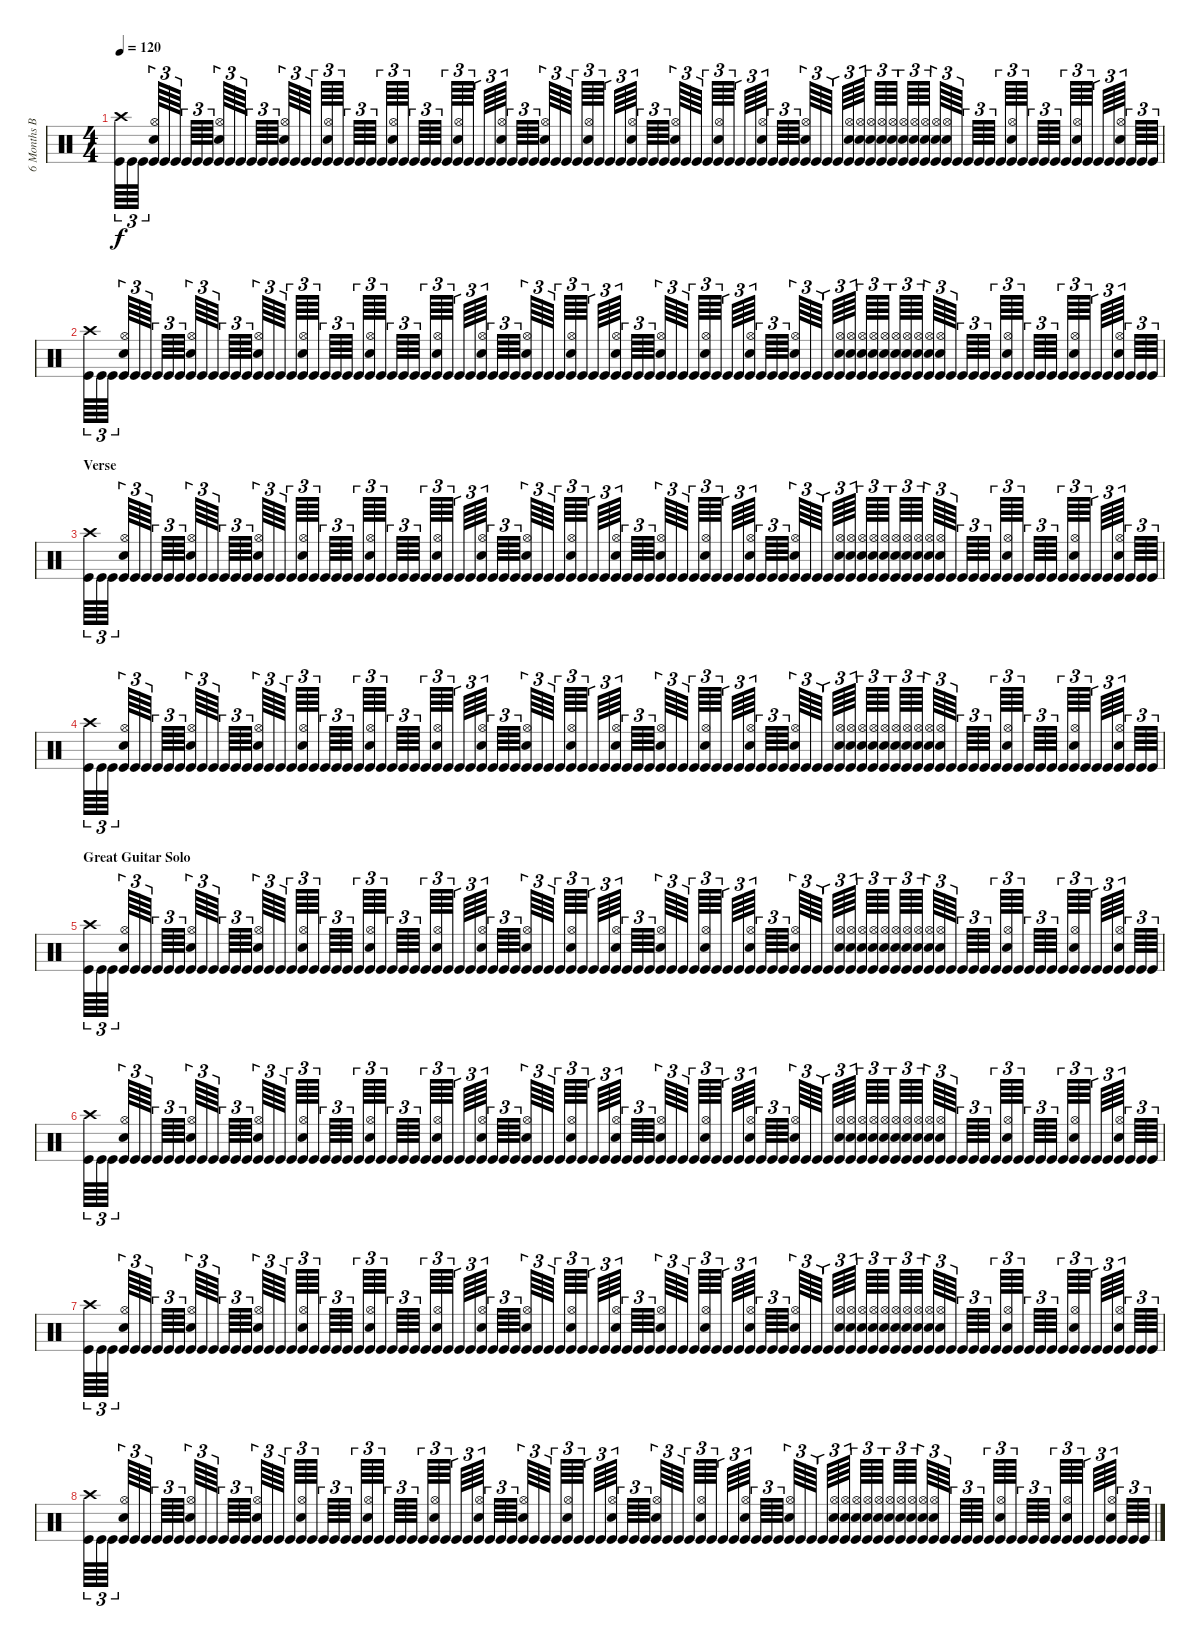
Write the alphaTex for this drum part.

\track ("6 Months Baby" "6 Months B") {instrument percussion}
\staff {score}
\articulation defaults
\ts (4 4)
\tempo 120
\clef neutral
\ks c
("Crash high (hit)" "Kick (hit)").64{tu (3 2) dy f} "Kick (hit)".64{tu (3 2)} "Kick (hit)".64{tu (3 2)} ("Hi-Hat (open)" "Snare (hit) 2" "Kick (hit)").64{tu (3 2)} "Kick (hit)".64{tu (3 2)} "Kick (hit)".64{tu (3 2)} "Kick (hit)".64{tu (3 2)} "Kick (hit)".64{tu (3 2)} "Kick (hit)".64{tu (3 2)} ("Hi-Hat (open)" "Snare (hit) 2" "Kick (hit)").64{tu (3 2)} "Kick (hit)".64{tu (3 2)} "Kick (hit)".64{tu (3 2)} "Kick (hit)".64{tu (3 2)} "Kick (hit)".64{tu (3 2)} "Kick (hit)".64{tu (3 2)} ("Hi-Hat (open)" "Snare (hit) 2" "Kick (hit)").64{tu (3 2)} "Kick (hit)".64{tu (3 2)} "Kick (hit)".64{tu (3 2)} "Kick (hit)".64{tu (3 2)} ("Hi-Hat (open)" "Snare (hit) 2" "Kick (hit)").64{tu (3 2)} "Kick (hit)".64{tu (3 2)} "Kick (hit)".64{tu (3 2)} "Kick (hit)".64{tu (3 2)} "Kick (hit)".64{tu (3 2)} "Kick (hit)".64{tu (3 2)} ("Hi-Hat (open)" "Snare (hit) 2" "Kick (hit)").64{tu (3 2)} "Kick (hit)".64{tu (3 2)} "Kick (hit)".64{tu (3 2)} "Kick (hit)".64{tu (3 2)} "Kick (hit)".64{tu (3 2)} "Kick (hit)".64{tu (3 2)} ("Hi-Hat (open)" "Snare (hit) 2" "Kick (hit)").64{tu (3 2)} "Kick (hit)".64{tu (3 2)} "Kick (hit)".64{tu (3 2)} "Kick (hit)".64{tu (3 2)} ("Hi-Hat (open)" "Snare (hit) 2" "Kick (hit)").64{tu (3 2)} "Kick (hit)".64{tu (3 2)} "Kick (hit)".64{tu (3 2)} "Kick (hit)".64{tu (3 2)} ("Hi-Hat (open)" "Snare (hit) 2" "Kick (hit)").64{tu (3 2)} "Kick (hit)".64{tu (3 2)} "Kick (hit)".64{tu (3 2)} "Kick (hit)".64{tu (3 2)} ("Hi-Hat (open)" "Snare (hit) 2" "Kick (hit)").64{tu (3 2)} "Kick (hit)".64{tu (3 2)} "Kick (hit)".64{tu (3 2)} "Kick (hit)".64{tu (3 2)} ("Hi-Hat (open)" "Snare (hit) 2" "Kick (hit)").64{tu (3 2)} "Kick (hit)".64{tu (3 2)} "Kick (hit)".64{tu (3 2)} "Kick (hit)".64{tu (3 2)} ("Hi-Hat (open)" "Snare (hit) 2" "Kick (hit)").64{tu (3 2)} "Kick (hit)".64{tu (3 2)} "Kick (hit)".64{tu (3 2)} "Kick (hit)".64{tu (3 2)} ("Hi-Hat (open)" "Snare (hit) 2" "Kick (hit)").64{tu (3 2)} "Kick (hit)".64{tu (3 2)} "Kick (hit)".64{tu (3 2)} "Kick (hit)".64{tu (3 2)} ("Hi-Hat (open)" "Snare (hit) 2" "Kick (hit)").64{tu (3 2)} "Kick (hit)".64{tu (3 2)} "Kick (hit)".64{tu (3 2)} "Kick (hit)".64{tu (3 2)} ("Hi-Hat (open)" "Snare (hit) 2" "Kick (hit)").64{tu (3 2)} "Kick (hit)".64{tu (3 2)} "Kick (hit)".64{tu (3 2)} "Kick (hit)".64{tu (3 2)} ("Hi-Hat (open)" "Snare (hit) 2" "Kick (hit)").64{tu (3 2)} ("Hi-Hat (open)" "Snare (hit) 2" "Kick (hit)").64{tu (3 2)} ("Hi-Hat (open)" "Snare (hit) 2" "Kick (hit)").64{tu (3 2)} ("Hi-Hat (open)" "Snare (hit) 2" "Kick (hit)").64{tu (3 2)} ("Hi-Hat (open)" "Snare (hit) 2" "Kick (hit)").64{tu (3 2)} ("Hi-Hat (open)" "Snare (hit) 2" "Kick (hit)").64{tu (3 2)} ("Hi-Hat (open)" "Snare (hit) 2" "Kick (hit)").64{tu (3 2)} ("Hi-Hat (open)" "Snare (hit) 2" "Kick (hit)").64{tu (3 2)} ("Hi-Hat (open)" "Snare (hit) 2" "Kick (hit)").64{tu (3 2)} ("Hi-Hat (open)" "Snare (hit) 2" "Kick (hit)").64{tu (3 2)} "Kick (hit)".64{tu (3 2)} "Kick (hit)".64{tu (3 2)} "Kick (hit)".64{tu (3 2)} "Kick (hit)".64{tu (3 2)} "Kick (hit)".64{tu (3 2)} ("Hi-Hat (open)" "Snare (hit) 2" "Kick (hit)").64{tu (3 2)} "Kick (hit)".64{tu (3 2)} "Kick (hit)".64{tu (3 2)} "Kick (hit)".64{tu (3 2)} "Kick (hit)".64{tu (3 2)} "Kick (hit)".64{tu (3 2)} ("Hi-Hat (open)" "Snare (hit) 2" "Kick (hit)").64{tu (3 2)} "Kick (hit)".64{tu (3 2)} "Kick (hit)".64{tu (3 2)} "Kick (hit)".64{tu (3 2)} ("Hi-Hat (open)" "Snare (hit) 2" "Kick (hit)").64{tu (3 2)} "Kick (hit)".64{tu (3 2)} "Kick (hit)".64{tu (3 2)} "Kick (hit)".64{tu (3 2)} |
("Crash high (hit)" "Kick (hit)").64{tu (3 2)} "Kick (hit)".64{tu (3 2)} "Kick (hit)".64{tu (3 2)} ("Hi-Hat (open)" "Snare (hit) 2" "Kick (hit)").64{tu (3 2)} "Kick (hit)".64{tu (3 2)} "Kick (hit)".64{tu (3 2)} "Kick (hit)".64{tu (3 2)} "Kick (hit)".64{tu (3 2)} "Kick (hit)".64{tu (3 2)} ("Hi-Hat (open)" "Snare (hit) 2" "Kick (hit)").64{tu (3 2)} "Kick (hit)".64{tu (3 2)} "Kick (hit)".64{tu (3 2)} "Kick (hit)".64{tu (3 2)} "Kick (hit)".64{tu (3 2)} "Kick (hit)".64{tu (3 2)} ("Hi-Hat (open)" "Snare (hit) 2" "Kick (hit)").64{tu (3 2)} "Kick (hit)".64{tu (3 2)} "Kick (hit)".64{tu (3 2)} "Kick (hit)".64{tu (3 2)} ("Hi-Hat (open)" "Snare (hit) 2" "Kick (hit)").64{tu (3 2)} "Kick (hit)".64{tu (3 2)} "Kick (hit)".64{tu (3 2)} "Kick (hit)".64{tu (3 2)} "Kick (hit)".64{tu (3 2)} "Kick (hit)".64{tu (3 2)} ("Hi-Hat (open)" "Snare (hit) 2" "Kick (hit)").64{tu (3 2)} "Kick (hit)".64{tu (3 2)} "Kick (hit)".64{tu (3 2)} "Kick (hit)".64{tu (3 2)} "Kick (hit)".64{tu (3 2)} "Kick (hit)".64{tu (3 2)} ("Hi-Hat (open)" "Snare (hit) 2" "Kick (hit)").64{tu (3 2)} "Kick (hit)".64{tu (3 2)} "Kick (hit)".64{tu (3 2)} "Kick (hit)".64{tu (3 2)} ("Hi-Hat (open)" "Snare (hit) 2" "Kick (hit)").64{tu (3 2)} "Kick (hit)".64{tu (3 2)} "Kick (hit)".64{tu (3 2)} "Kick (hit)".64{tu (3 2)} ("Hi-Hat (open)" "Snare (hit) 2" "Kick (hit)").64{tu (3 2)} "Kick (hit)".64{tu (3 2)} "Kick (hit)".64{tu (3 2)} "Kick (hit)".64{tu (3 2)} ("Hi-Hat (open)" "Snare (hit) 2" "Kick (hit)").64{tu (3 2)} "Kick (hit)".64{tu (3 2)} "Kick (hit)".64{tu (3 2)} "Kick (hit)".64{tu (3 2)} ("Hi-Hat (open)" "Snare (hit) 2" "Kick (hit)").64{tu (3 2)} "Kick (hit)".64{tu (3 2)} "Kick (hit)".64{tu (3 2)} "Kick (hit)".64{tu (3 2)} ("Hi-Hat (open)" "Snare (hit) 2" "Kick (hit)").64{tu (3 2)} "Kick (hit)".64{tu (3 2)} "Kick (hit)".64{tu (3 2)} "Kick (hit)".64{tu (3 2)} ("Hi-Hat (open)" "Snare (hit) 2" "Kick (hit)").64{tu (3 2)} "Kick (hit)".64{tu (3 2)} "Kick (hit)".64{tu (3 2)} "Kick (hit)".64{tu (3 2)} ("Hi-Hat (open)" "Snare (hit) 2" "Kick (hit)").64{tu (3 2)} "Kick (hit)".64{tu (3 2)} "Kick (hit)".64{tu (3 2)} "Kick (hit)".64{tu (3 2)} ("Hi-Hat (open)" "Snare (hit) 2" "Kick (hit)").64{tu (3 2)} "Kick (hit)".64{tu (3 2)} "Kick (hit)".64{tu (3 2)} "Kick (hit)".64{tu (3 2)} ("Hi-Hat (open)" "Snare (hit) 2" "Kick (hit)").64{tu (3 2)} ("Hi-Hat (open)" "Snare (hit) 2" "Kick (hit)").64{tu (3 2)} ("Hi-Hat (open)" "Snare (hit) 2" "Kick (hit)").64{tu (3 2)} ("Hi-Hat (open)" "Snare (hit) 2" "Kick (hit)").64{tu (3 2)} ("Hi-Hat (open)" "Snare (hit) 2" "Kick (hit)").64{tu (3 2)} ("Hi-Hat (open)" "Snare (hit) 2" "Kick (hit)").64{tu (3 2)} ("Hi-Hat (open)" "Snare (hit) 2" "Kick (hit)").64{tu (3 2)} ("Hi-Hat (open)" "Snare (hit) 2" "Kick (hit)").64{tu (3 2)} ("Hi-Hat (open)" "Snare (hit) 2" "Kick (hit)").64{tu (3 2)} ("Hi-Hat (open)" "Snare (hit) 2" "Kick (hit)").64{tu (3 2)} "Kick (hit)".64{tu (3 2)} "Kick (hit)".64{tu (3 2)} "Kick (hit)".64{tu (3 2)} "Kick (hit)".64{tu (3 2)} "Kick (hit)".64{tu (3 2)} ("Hi-Hat (open)" "Snare (hit) 2" "Kick (hit)").64{tu (3 2)} "Kick (hit)".64{tu (3 2)} "Kick (hit)".64{tu (3 2)} "Kick (hit)".64{tu (3 2)} "Kick (hit)".64{tu (3 2)} "Kick (hit)".64{tu (3 2)} ("Hi-Hat (open)" "Snare (hit) 2" "Kick (hit)").64{tu (3 2)} "Kick (hit)".64{tu (3 2)} "Kick (hit)".64{tu (3 2)} "Kick (hit)".64{tu (3 2)} ("Hi-Hat (open)" "Snare (hit) 2" "Kick (hit)").64{tu (3 2)} "Kick (hit)".64{tu (3 2)} "Kick (hit)".64{tu (3 2)} "Kick (hit)".64{tu (3 2)} |
\section ("" "Verse")
("Crash high (hit)" "Kick (hit)").64{tu (3 2)} "Kick (hit)".64{tu (3 2)} "Kick (hit)".64{tu (3 2)} ("Hi-Hat (open)" "Snare (hit) 2" "Kick (hit)").64{tu (3 2)} "Kick (hit)".64{tu (3 2)} "Kick (hit)".64{tu (3 2)} "Kick (hit)".64{tu (3 2)} "Kick (hit)".64{tu (3 2)} "Kick (hit)".64{tu (3 2)} ("Hi-Hat (open)" "Snare (hit) 2" "Kick (hit)").64{tu (3 2)} "Kick (hit)".64{tu (3 2)} "Kick (hit)".64{tu (3 2)} "Kick (hit)".64{tu (3 2)} "Kick (hit)".64{tu (3 2)} "Kick (hit)".64{tu (3 2)} ("Hi-Hat (open)" "Snare (hit) 2" "Kick (hit)").64{tu (3 2)} "Kick (hit)".64{tu (3 2)} "Kick (hit)".64{tu (3 2)} "Kick (hit)".64{tu (3 2)} ("Hi-Hat (open)" "Snare (hit) 2" "Kick (hit)").64{tu (3 2)} "Kick (hit)".64{tu (3 2)} "Kick (hit)".64{tu (3 2)} "Kick (hit)".64{tu (3 2)} "Kick (hit)".64{tu (3 2)} "Kick (hit)".64{tu (3 2)} ("Hi-Hat (open)" "Snare (hit) 2" "Kick (hit)").64{tu (3 2)} "Kick (hit)".64{tu (3 2)} "Kick (hit)".64{tu (3 2)} "Kick (hit)".64{tu (3 2)} "Kick (hit)".64{tu (3 2)} "Kick (hit)".64{tu (3 2)} ("Hi-Hat (open)" "Snare (hit) 2" "Kick (hit)").64{tu (3 2)} "Kick (hit)".64{tu (3 2)} "Kick (hit)".64{tu (3 2)} "Kick (hit)".64{tu (3 2)} ("Hi-Hat (open)" "Snare (hit) 2" "Kick (hit)").64{tu (3 2)} "Kick (hit)".64{tu (3 2)} "Kick (hit)".64{tu (3 2)} "Kick (hit)".64{tu (3 2)} ("Hi-Hat (open)" "Snare (hit) 2" "Kick (hit)").64{tu (3 2)} "Kick (hit)".64{tu (3 2)} "Kick (hit)".64{tu (3 2)} "Kick (hit)".64{tu (3 2)} ("Hi-Hat (open)" "Snare (hit) 2" "Kick (hit)").64{tu (3 2)} "Kick (hit)".64{tu (3 2)} "Kick (hit)".64{tu (3 2)} "Kick (hit)".64{tu (3 2)} ("Hi-Hat (open)" "Snare (hit) 2" "Kick (hit)").64{tu (3 2)} "Kick (hit)".64{tu (3 2)} "Kick (hit)".64{tu (3 2)} "Kick (hit)".64{tu (3 2)} ("Hi-Hat (open)" "Snare (hit) 2" "Kick (hit)").64{tu (3 2)} "Kick (hit)".64{tu (3 2)} "Kick (hit)".64{tu (3 2)} "Kick (hit)".64{tu (3 2)} ("Hi-Hat (open)" "Snare (hit) 2" "Kick (hit)").64{tu (3 2)} "Kick (hit)".64{tu (3 2)} "Kick (hit)".64{tu (3 2)} "Kick (hit)".64{tu (3 2)} ("Hi-Hat (open)" "Snare (hit) 2" "Kick (hit)").64{tu (3 2)} "Kick (hit)".64{tu (3 2)} "Kick (hit)".64{tu (3 2)} "Kick (hit)".64{tu (3 2)} ("Hi-Hat (open)" "Snare (hit) 2" "Kick (hit)").64{tu (3 2)} "Kick (hit)".64{tu (3 2)} "Kick (hit)".64{tu (3 2)} "Kick (hit)".64{tu (3 2)} ("Hi-Hat (open)" "Snare (hit) 2" "Kick (hit)").64{tu (3 2)} ("Hi-Hat (open)" "Snare (hit) 2" "Kick (hit)").64{tu (3 2)} ("Hi-Hat (open)" "Snare (hit) 2" "Kick (hit)").64{tu (3 2)} ("Hi-Hat (open)" "Snare (hit) 2" "Kick (hit)").64{tu (3 2)} ("Hi-Hat (open)" "Snare (hit) 2" "Kick (hit)").64{tu (3 2)} ("Hi-Hat (open)" "Snare (hit) 2" "Kick (hit)").64{tu (3 2)} ("Hi-Hat (open)" "Snare (hit) 2" "Kick (hit)").64{tu (3 2)} ("Hi-Hat (open)" "Snare (hit) 2" "Kick (hit)").64{tu (3 2)} ("Hi-Hat (open)" "Snare (hit) 2" "Kick (hit)").64{tu (3 2)} ("Hi-Hat (open)" "Snare (hit) 2" "Kick (hit)").64{tu (3 2)} "Kick (hit)".64{tu (3 2)} "Kick (hit)".64{tu (3 2)} "Kick (hit)".64{tu (3 2)} "Kick (hit)".64{tu (3 2)} "Kick (hit)".64{tu (3 2)} ("Hi-Hat (open)" "Snare (hit) 2" "Kick (hit)").64{tu (3 2)} "Kick (hit)".64{tu (3 2)} "Kick (hit)".64{tu (3 2)} "Kick (hit)".64{tu (3 2)} "Kick (hit)".64{tu (3 2)} "Kick (hit)".64{tu (3 2)} ("Hi-Hat (open)" "Snare (hit) 2" "Kick (hit)").64{tu (3 2)} "Kick (hit)".64{tu (3 2)} "Kick (hit)".64{tu (3 2)} "Kick (hit)".64{tu (3 2)} ("Hi-Hat (open)" "Snare (hit) 2" "Kick (hit)").64{tu (3 2)} "Kick (hit)".64{tu (3 2)} "Kick (hit)".64{tu (3 2)} "Kick (hit)".64{tu (3 2)} |
("Crash high (hit)" "Kick (hit)").64{tu (3 2)} "Kick (hit)".64{tu (3 2)} "Kick (hit)".64{tu (3 2)} ("Hi-Hat (open)" "Snare (hit) 2" "Kick (hit)").64{tu (3 2)} "Kick (hit)".64{tu (3 2)} "Kick (hit)".64{tu (3 2)} "Kick (hit)".64{tu (3 2)} "Kick (hit)".64{tu (3 2)} "Kick (hit)".64{tu (3 2)} ("Hi-Hat (open)" "Snare (hit) 2" "Kick (hit)").64{tu (3 2)} "Kick (hit)".64{tu (3 2)} "Kick (hit)".64{tu (3 2)} "Kick (hit)".64{tu (3 2)} "Kick (hit)".64{tu (3 2)} "Kick (hit)".64{tu (3 2)} ("Hi-Hat (open)" "Snare (hit) 2" "Kick (hit)").64{tu (3 2)} "Kick (hit)".64{tu (3 2)} "Kick (hit)".64{tu (3 2)} "Kick (hit)".64{tu (3 2)} ("Hi-Hat (open)" "Snare (hit) 2" "Kick (hit)").64{tu (3 2)} "Kick (hit)".64{tu (3 2)} "Kick (hit)".64{tu (3 2)} "Kick (hit)".64{tu (3 2)} "Kick (hit)".64{tu (3 2)} "Kick (hit)".64{tu (3 2)} ("Hi-Hat (open)" "Snare (hit) 2" "Kick (hit)").64{tu (3 2)} "Kick (hit)".64{tu (3 2)} "Kick (hit)".64{tu (3 2)} "Kick (hit)".64{tu (3 2)} "Kick (hit)".64{tu (3 2)} "Kick (hit)".64{tu (3 2)} ("Hi-Hat (open)" "Snare (hit) 2" "Kick (hit)").64{tu (3 2)} "Kick (hit)".64{tu (3 2)} "Kick (hit)".64{tu (3 2)} "Kick (hit)".64{tu (3 2)} ("Hi-Hat (open)" "Snare (hit) 2" "Kick (hit)").64{tu (3 2)} "Kick (hit)".64{tu (3 2)} "Kick (hit)".64{tu (3 2)} "Kick (hit)".64{tu (3 2)} ("Hi-Hat (open)" "Snare (hit) 2" "Kick (hit)").64{tu (3 2)} "Kick (hit)".64{tu (3 2)} "Kick (hit)".64{tu (3 2)} "Kick (hit)".64{tu (3 2)} ("Hi-Hat (open)" "Snare (hit) 2" "Kick (hit)").64{tu (3 2)} "Kick (hit)".64{tu (3 2)} "Kick (hit)".64{tu (3 2)} "Kick (hit)".64{tu (3 2)} ("Hi-Hat (open)" "Snare (hit) 2" "Kick (hit)").64{tu (3 2)} "Kick (hit)".64{tu (3 2)} "Kick (hit)".64{tu (3 2)} "Kick (hit)".64{tu (3 2)} ("Hi-Hat (open)" "Snare (hit) 2" "Kick (hit)").64{tu (3 2)} "Kick (hit)".64{tu (3 2)} "Kick (hit)".64{tu (3 2)} "Kick (hit)".64{tu (3 2)} ("Hi-Hat (open)" "Snare (hit) 2" "Kick (hit)").64{tu (3 2)} "Kick (hit)".64{tu (3 2)} "Kick (hit)".64{tu (3 2)} "Kick (hit)".64{tu (3 2)} ("Hi-Hat (open)" "Snare (hit) 2" "Kick (hit)").64{tu (3 2)} "Kick (hit)".64{tu (3 2)} "Kick (hit)".64{tu (3 2)} "Kick (hit)".64{tu (3 2)} ("Hi-Hat (open)" "Snare (hit) 2" "Kick (hit)").64{tu (3 2)} "Kick (hit)".64{tu (3 2)} "Kick (hit)".64{tu (3 2)} "Kick (hit)".64{tu (3 2)} ("Hi-Hat (open)" "Snare (hit) 2" "Kick (hit)").64{tu (3 2)} ("Hi-Hat (open)" "Snare (hit) 2" "Kick (hit)").64{tu (3 2)} ("Hi-Hat (open)" "Snare (hit) 2" "Kick (hit)").64{tu (3 2)} ("Hi-Hat (open)" "Snare (hit) 2" "Kick (hit)").64{tu (3 2)} ("Hi-Hat (open)" "Snare (hit) 2" "Kick (hit)").64{tu (3 2)} ("Hi-Hat (open)" "Snare (hit) 2" "Kick (hit)").64{tu (3 2)} ("Hi-Hat (open)" "Snare (hit) 2" "Kick (hit)").64{tu (3 2)} ("Hi-Hat (open)" "Snare (hit) 2" "Kick (hit)").64{tu (3 2)} ("Hi-Hat (open)" "Snare (hit) 2" "Kick (hit)").64{tu (3 2)} ("Hi-Hat (open)" "Snare (hit) 2" "Kick (hit)").64{tu (3 2)} "Kick (hit)".64{tu (3 2)} "Kick (hit)".64{tu (3 2)} "Kick (hit)".64{tu (3 2)} "Kick (hit)".64{tu (3 2)} "Kick (hit)".64{tu (3 2)} ("Hi-Hat (open)" "Snare (hit) 2" "Kick (hit)").64{tu (3 2)} "Kick (hit)".64{tu (3 2)} "Kick (hit)".64{tu (3 2)} "Kick (hit)".64{tu (3 2)} "Kick (hit)".64{tu (3 2)} "Kick (hit)".64{tu (3 2)} ("Hi-Hat (open)" "Snare (hit) 2" "Kick (hit)").64{tu (3 2)} "Kick (hit)".64{tu (3 2)} "Kick (hit)".64{tu (3 2)} "Kick (hit)".64{tu (3 2)} ("Hi-Hat (open)" "Snare (hit) 2" "Kick (hit)").64{tu (3 2)} "Kick (hit)".64{tu (3 2)} "Kick (hit)".64{tu (3 2)} "Kick (hit)".64{tu (3 2)} |
\section ("" "Great Guitar Solo")
("Crash high (hit)" "Kick (hit)").64{tu (3 2)} "Kick (hit)".64{tu (3 2)} "Kick (hit)".64{tu (3 2)} ("Hi-Hat (open)" "Snare (hit) 2" "Kick (hit)").64{tu (3 2)} "Kick (hit)".64{tu (3 2)} "Kick (hit)".64{tu (3 2)} "Kick (hit)".64{tu (3 2)} "Kick (hit)".64{tu (3 2)} "Kick (hit)".64{tu (3 2)} ("Hi-Hat (open)" "Snare (hit) 2" "Kick (hit)").64{tu (3 2)} "Kick (hit)".64{tu (3 2)} "Kick (hit)".64{tu (3 2)} "Kick (hit)".64{tu (3 2)} "Kick (hit)".64{tu (3 2)} "Kick (hit)".64{tu (3 2)} ("Hi-Hat (open)" "Snare (hit) 2" "Kick (hit)").64{tu (3 2)} "Kick (hit)".64{tu (3 2)} "Kick (hit)".64{tu (3 2)} "Kick (hit)".64{tu (3 2)} ("Hi-Hat (open)" "Snare (hit) 2" "Kick (hit)").64{tu (3 2)} "Kick (hit)".64{tu (3 2)} "Kick (hit)".64{tu (3 2)} "Kick (hit)".64{tu (3 2)} "Kick (hit)".64{tu (3 2)} "Kick (hit)".64{tu (3 2)} ("Hi-Hat (open)" "Snare (hit) 2" "Kick (hit)").64{tu (3 2)} "Kick (hit)".64{tu (3 2)} "Kick (hit)".64{tu (3 2)} "Kick (hit)".64{tu (3 2)} "Kick (hit)".64{tu (3 2)} "Kick (hit)".64{tu (3 2)} ("Hi-Hat (open)" "Snare (hit) 2" "Kick (hit)").64{tu (3 2)} "Kick (hit)".64{tu (3 2)} "Kick (hit)".64{tu (3 2)} "Kick (hit)".64{tu (3 2)} ("Hi-Hat (open)" "Snare (hit) 2" "Kick (hit)").64{tu (3 2)} "Kick (hit)".64{tu (3 2)} "Kick (hit)".64{tu (3 2)} "Kick (hit)".64{tu (3 2)} ("Hi-Hat (open)" "Snare (hit) 2" "Kick (hit)").64{tu (3 2)} "Kick (hit)".64{tu (3 2)} "Kick (hit)".64{tu (3 2)} "Kick (hit)".64{tu (3 2)} ("Hi-Hat (open)" "Snare (hit) 2" "Kick (hit)").64{tu (3 2)} "Kick (hit)".64{tu (3 2)} "Kick (hit)".64{tu (3 2)} "Kick (hit)".64{tu (3 2)} ("Hi-Hat (open)" "Snare (hit) 2" "Kick (hit)").64{tu (3 2)} "Kick (hit)".64{tu (3 2)} "Kick (hit)".64{tu (3 2)} "Kick (hit)".64{tu (3 2)} ("Hi-Hat (open)" "Snare (hit) 2" "Kick (hit)").64{tu (3 2)} "Kick (hit)".64{tu (3 2)} "Kick (hit)".64{tu (3 2)} "Kick (hit)".64{tu (3 2)} ("Hi-Hat (open)" "Snare (hit) 2" "Kick (hit)").64{tu (3 2)} "Kick (hit)".64{tu (3 2)} "Kick (hit)".64{tu (3 2)} "Kick (hit)".64{tu (3 2)} ("Hi-Hat (open)" "Snare (hit) 2" "Kick (hit)").64{tu (3 2)} "Kick (hit)".64{tu (3 2)} "Kick (hit)".64{tu (3 2)} "Kick (hit)".64{tu (3 2)} ("Hi-Hat (open)" "Snare (hit) 2" "Kick (hit)").64{tu (3 2)} "Kick (hit)".64{tu (3 2)} "Kick (hit)".64{tu (3 2)} "Kick (hit)".64{tu (3 2)} ("Hi-Hat (open)" "Snare (hit) 2" "Kick (hit)").64{tu (3 2)} ("Hi-Hat (open)" "Snare (hit) 2" "Kick (hit)").64{tu (3 2)} ("Hi-Hat (open)" "Snare (hit) 2" "Kick (hit)").64{tu (3 2)} ("Hi-Hat (open)" "Snare (hit) 2" "Kick (hit)").64{tu (3 2)} ("Hi-Hat (open)" "Snare (hit) 2" "Kick (hit)").64{tu (3 2)} ("Hi-Hat (open)" "Snare (hit) 2" "Kick (hit)").64{tu (3 2)} ("Hi-Hat (open)" "Snare (hit) 2" "Kick (hit)").64{tu (3 2)} ("Hi-Hat (open)" "Snare (hit) 2" "Kick (hit)").64{tu (3 2)} ("Hi-Hat (open)" "Snare (hit) 2" "Kick (hit)").64{tu (3 2)} ("Hi-Hat (open)" "Snare (hit) 2" "Kick (hit)").64{tu (3 2)} "Kick (hit)".64{tu (3 2)} "Kick (hit)".64{tu (3 2)} "Kick (hit)".64{tu (3 2)} "Kick (hit)".64{tu (3 2)} "Kick (hit)".64{tu (3 2)} ("Hi-Hat (open)" "Snare (hit) 2" "Kick (hit)").64{tu (3 2)} "Kick (hit)".64{tu (3 2)} "Kick (hit)".64{tu (3 2)} "Kick (hit)".64{tu (3 2)} "Kick (hit)".64{tu (3 2)} "Kick (hit)".64{tu (3 2)} ("Hi-Hat (open)" "Snare (hit) 2" "Kick (hit)").64{tu (3 2)} "Kick (hit)".64{tu (3 2)} "Kick (hit)".64{tu (3 2)} "Kick (hit)".64{tu (3 2)} ("Hi-Hat (open)" "Snare (hit) 2" "Kick (hit)").64{tu (3 2)} "Kick (hit)".64{tu (3 2)} "Kick (hit)".64{tu (3 2)} "Kick (hit)".64{tu (3 2)} |
("Crash high (hit)" "Kick (hit)").64{tu (3 2)} "Kick (hit)".64{tu (3 2)} "Kick (hit)".64{tu (3 2)} ("Hi-Hat (open)" "Snare (hit) 2" "Kick (hit)").64{tu (3 2)} "Kick (hit)".64{tu (3 2)} "Kick (hit)".64{tu (3 2)} "Kick (hit)".64{tu (3 2)} "Kick (hit)".64{tu (3 2)} "Kick (hit)".64{tu (3 2)} ("Hi-Hat (open)" "Snare (hit) 2" "Kick (hit)").64{tu (3 2)} "Kick (hit)".64{tu (3 2)} "Kick (hit)".64{tu (3 2)} "Kick (hit)".64{tu (3 2)} "Kick (hit)".64{tu (3 2)} "Kick (hit)".64{tu (3 2)} ("Hi-Hat (open)" "Snare (hit) 2" "Kick (hit)").64{tu (3 2)} "Kick (hit)".64{tu (3 2)} "Kick (hit)".64{tu (3 2)} "Kick (hit)".64{tu (3 2)} ("Hi-Hat (open)" "Snare (hit) 2" "Kick (hit)").64{tu (3 2)} "Kick (hit)".64{tu (3 2)} "Kick (hit)".64{tu (3 2)} "Kick (hit)".64{tu (3 2)} "Kick (hit)".64{tu (3 2)} "Kick (hit)".64{tu (3 2)} ("Hi-Hat (open)" "Snare (hit) 2" "Kick (hit)").64{tu (3 2)} "Kick (hit)".64{tu (3 2)} "Kick (hit)".64{tu (3 2)} "Kick (hit)".64{tu (3 2)} "Kick (hit)".64{tu (3 2)} "Kick (hit)".64{tu (3 2)} ("Hi-Hat (open)" "Snare (hit) 2" "Kick (hit)").64{tu (3 2)} "Kick (hit)".64{tu (3 2)} "Kick (hit)".64{tu (3 2)} "Kick (hit)".64{tu (3 2)} ("Hi-Hat (open)" "Snare (hit) 2" "Kick (hit)").64{tu (3 2)} "Kick (hit)".64{tu (3 2)} "Kick (hit)".64{tu (3 2)} "Kick (hit)".64{tu (3 2)} ("Hi-Hat (open)" "Snare (hit) 2" "Kick (hit)").64{tu (3 2)} "Kick (hit)".64{tu (3 2)} "Kick (hit)".64{tu (3 2)} "Kick (hit)".64{tu (3 2)} ("Hi-Hat (open)" "Snare (hit) 2" "Kick (hit)").64{tu (3 2)} "Kick (hit)".64{tu (3 2)} "Kick (hit)".64{tu (3 2)} "Kick (hit)".64{tu (3 2)} ("Hi-Hat (open)" "Snare (hit) 2" "Kick (hit)").64{tu (3 2)} "Kick (hit)".64{tu (3 2)} "Kick (hit)".64{tu (3 2)} "Kick (hit)".64{tu (3 2)} ("Hi-Hat (open)" "Snare (hit) 2" "Kick (hit)").64{tu (3 2)} "Kick (hit)".64{tu (3 2)} "Kick (hit)".64{tu (3 2)} "Kick (hit)".64{tu (3 2)} ("Hi-Hat (open)" "Snare (hit) 2" "Kick (hit)").64{tu (3 2)} "Kick (hit)".64{tu (3 2)} "Kick (hit)".64{tu (3 2)} "Kick (hit)".64{tu (3 2)} ("Hi-Hat (open)" "Snare (hit) 2" "Kick (hit)").64{tu (3 2)} "Kick (hit)".64{tu (3 2)} "Kick (hit)".64{tu (3 2)} "Kick (hit)".64{tu (3 2)} ("Hi-Hat (open)" "Snare (hit) 2" "Kick (hit)").64{tu (3 2)} "Kick (hit)".64{tu (3 2)} "Kick (hit)".64{tu (3 2)} "Kick (hit)".64{tu (3 2)} ("Hi-Hat (open)" "Snare (hit) 2" "Kick (hit)").64{tu (3 2)} ("Hi-Hat (open)" "Snare (hit) 2" "Kick (hit)").64{tu (3 2)} ("Hi-Hat (open)" "Snare (hit) 2" "Kick (hit)").64{tu (3 2)} ("Hi-Hat (open)" "Snare (hit) 2" "Kick (hit)").64{tu (3 2)} ("Hi-Hat (open)" "Snare (hit) 2" "Kick (hit)").64{tu (3 2)} ("Hi-Hat (open)" "Snare (hit) 2" "Kick (hit)").64{tu (3 2)} ("Hi-Hat (open)" "Snare (hit) 2" "Kick (hit)").64{tu (3 2)} ("Hi-Hat (open)" "Snare (hit) 2" "Kick (hit)").64{tu (3 2)} ("Hi-Hat (open)" "Snare (hit) 2" "Kick (hit)").64{tu (3 2)} ("Hi-Hat (open)" "Snare (hit) 2" "Kick (hit)").64{tu (3 2)} "Kick (hit)".64{tu (3 2)} "Kick (hit)".64{tu (3 2)} "Kick (hit)".64{tu (3 2)} "Kick (hit)".64{tu (3 2)} "Kick (hit)".64{tu (3 2)} ("Hi-Hat (open)" "Snare (hit) 2" "Kick (hit)").64{tu (3 2)} "Kick (hit)".64{tu (3 2)} "Kick (hit)".64{tu (3 2)} "Kick (hit)".64{tu (3 2)} "Kick (hit)".64{tu (3 2)} "Kick (hit)".64{tu (3 2)} ("Hi-Hat (open)" "Snare (hit) 2" "Kick (hit)").64{tu (3 2)} "Kick (hit)".64{tu (3 2)} "Kick (hit)".64{tu (3 2)} "Kick (hit)".64{tu (3 2)} ("Hi-Hat (open)" "Snare (hit) 2" "Kick (hit)").64{tu (3 2)} "Kick (hit)".64{tu (3 2)} "Kick (hit)".64{tu (3 2)} "Kick (hit)".64{tu (3 2)} |
("Crash high (hit)" "Kick (hit)").64{tu (3 2)} "Kick (hit)".64{tu (3 2)} "Kick (hit)".64{tu (3 2)} ("Hi-Hat (open)" "Snare (hit) 2" "Kick (hit)").64{tu (3 2)} "Kick (hit)".64{tu (3 2)} "Kick (hit)".64{tu (3 2)} "Kick (hit)".64{tu (3 2)} "Kick (hit)".64{tu (3 2)} "Kick (hit)".64{tu (3 2)} ("Hi-Hat (open)" "Snare (hit) 2" "Kick (hit)").64{tu (3 2)} "Kick (hit)".64{tu (3 2)} "Kick (hit)".64{tu (3 2)} "Kick (hit)".64{tu (3 2)} "Kick (hit)".64{tu (3 2)} "Kick (hit)".64{tu (3 2)} ("Hi-Hat (open)" "Snare (hit) 2" "Kick (hit)").64{tu (3 2)} "Kick (hit)".64{tu (3 2)} "Kick (hit)".64{tu (3 2)} "Kick (hit)".64{tu (3 2)} ("Hi-Hat (open)" "Snare (hit) 2" "Kick (hit)").64{tu (3 2)} "Kick (hit)".64{tu (3 2)} "Kick (hit)".64{tu (3 2)} "Kick (hit)".64{tu (3 2)} "Kick (hit)".64{tu (3 2)} "Kick (hit)".64{tu (3 2)} ("Hi-Hat (open)" "Snare (hit) 2" "Kick (hit)").64{tu (3 2)} "Kick (hit)".64{tu (3 2)} "Kick (hit)".64{tu (3 2)} "Kick (hit)".64{tu (3 2)} "Kick (hit)".64{tu (3 2)} "Kick (hit)".64{tu (3 2)} ("Hi-Hat (open)" "Snare (hit) 2" "Kick (hit)").64{tu (3 2)} "Kick (hit)".64{tu (3 2)} "Kick (hit)".64{tu (3 2)} "Kick (hit)".64{tu (3 2)} ("Hi-Hat (open)" "Snare (hit) 2" "Kick (hit)").64{tu (3 2)} "Kick (hit)".64{tu (3 2)} "Kick (hit)".64{tu (3 2)} "Kick (hit)".64{tu (3 2)} ("Hi-Hat (open)" "Snare (hit) 2" "Kick (hit)").64{tu (3 2)} "Kick (hit)".64{tu (3 2)} "Kick (hit)".64{tu (3 2)} "Kick (hit)".64{tu (3 2)} ("Hi-Hat (open)" "Snare (hit) 2" "Kick (hit)").64{tu (3 2)} "Kick (hit)".64{tu (3 2)} "Kick (hit)".64{tu (3 2)} "Kick (hit)".64{tu (3 2)} ("Hi-Hat (open)" "Snare (hit) 2" "Kick (hit)").64{tu (3 2)} "Kick (hit)".64{tu (3 2)} "Kick (hit)".64{tu (3 2)} "Kick (hit)".64{tu (3 2)} ("Hi-Hat (open)" "Snare (hit) 2" "Kick (hit)").64{tu (3 2)} "Kick (hit)".64{tu (3 2)} "Kick (hit)".64{tu (3 2)} "Kick (hit)".64{tu (3 2)} ("Hi-Hat (open)" "Snare (hit) 2" "Kick (hit)").64{tu (3 2)} "Kick (hit)".64{tu (3 2)} "Kick (hit)".64{tu (3 2)} "Kick (hit)".64{tu (3 2)} ("Hi-Hat (open)" "Snare (hit) 2" "Kick (hit)").64{tu (3 2)} "Kick (hit)".64{tu (3 2)} "Kick (hit)".64{tu (3 2)} "Kick (hit)".64{tu (3 2)} ("Hi-Hat (open)" "Snare (hit) 2" "Kick (hit)").64{tu (3 2)} "Kick (hit)".64{tu (3 2)} "Kick (hit)".64{tu (3 2)} "Kick (hit)".64{tu (3 2)} ("Hi-Hat (open)" "Snare (hit) 2" "Kick (hit)").64{tu (3 2)} ("Hi-Hat (open)" "Snare (hit) 2" "Kick (hit)").64{tu (3 2)} ("Hi-Hat (open)" "Snare (hit) 2" "Kick (hit)").64{tu (3 2)} ("Hi-Hat (open)" "Snare (hit) 2" "Kick (hit)").64{tu (3 2)} ("Hi-Hat (open)" "Snare (hit) 2" "Kick (hit)").64{tu (3 2)} ("Hi-Hat (open)" "Snare (hit) 2" "Kick (hit)").64{tu (3 2)} ("Hi-Hat (open)" "Snare (hit) 2" "Kick (hit)").64{tu (3 2)} ("Hi-Hat (open)" "Snare (hit) 2" "Kick (hit)").64{tu (3 2)} ("Hi-Hat (open)" "Snare (hit) 2" "Kick (hit)").64{tu (3 2)} ("Hi-Hat (open)" "Snare (hit) 2" "Kick (hit)").64{tu (3 2)} "Kick (hit)".64{tu (3 2)} "Kick (hit)".64{tu (3 2)} "Kick (hit)".64{tu (3 2)} "Kick (hit)".64{tu (3 2)} "Kick (hit)".64{tu (3 2)} ("Hi-Hat (open)" "Snare (hit) 2" "Kick (hit)").64{tu (3 2)} "Kick (hit)".64{tu (3 2)} "Kick (hit)".64{tu (3 2)} "Kick (hit)".64{tu (3 2)} "Kick (hit)".64{tu (3 2)} "Kick (hit)".64{tu (3 2)} ("Hi-Hat (open)" "Snare (hit) 2" "Kick (hit)").64{tu (3 2)} "Kick (hit)".64{tu (3 2)} "Kick (hit)".64{tu (3 2)} "Kick (hit)".64{tu (3 2)} ("Hi-Hat (open)" "Snare (hit) 2" "Kick (hit)").64{tu (3 2)} "Kick (hit)".64{tu (3 2)} "Kick (hit)".64{tu (3 2)} "Kick (hit)".64{tu (3 2)} |
("Crash high (hit)" "Kick (hit)").64{tu (3 2)} "Kick (hit)".64{tu (3 2)} "Kick (hit)".64{tu (3 2)} ("Hi-Hat (open)" "Snare (hit) 2" "Kick (hit)").64{tu (3 2)} "Kick (hit)".64{tu (3 2)} "Kick (hit)".64{tu (3 2)} "Kick (hit)".64{tu (3 2)} "Kick (hit)".64{tu (3 2)} "Kick (hit)".64{tu (3 2)} ("Hi-Hat (open)" "Snare (hit) 2" "Kick (hit)").64{tu (3 2)} "Kick (hit)".64{tu (3 2)} "Kick (hit)".64{tu (3 2)} "Kick (hit)".64{tu (3 2)} "Kick (hit)".64{tu (3 2)} "Kick (hit)".64{tu (3 2)} ("Hi-Hat (open)" "Snare (hit) 2" "Kick (hit)").64{tu (3 2)} "Kick (hit)".64{tu (3 2)} "Kick (hit)".64{tu (3 2)} "Kick (hit)".64{tu (3 2)} ("Hi-Hat (open)" "Snare (hit) 2" "Kick (hit)").64{tu (3 2)} "Kick (hit)".64{tu (3 2)} "Kick (hit)".64{tu (3 2)} "Kick (hit)".64{tu (3 2)} "Kick (hit)".64{tu (3 2)} "Kick (hit)".64{tu (3 2)} ("Hi-Hat (open)" "Snare (hit) 2" "Kick (hit)").64{tu (3 2)} "Kick (hit)".64{tu (3 2)} "Kick (hit)".64{tu (3 2)} "Kick (hit)".64{tu (3 2)} "Kick (hit)".64{tu (3 2)} "Kick (hit)".64{tu (3 2)} ("Hi-Hat (open)" "Snare (hit) 2" "Kick (hit)").64{tu (3 2)} "Kick (hit)".64{tu (3 2)} "Kick (hit)".64{tu (3 2)} "Kick (hit)".64{tu (3 2)} ("Hi-Hat (open)" "Snare (hit) 2" "Kick (hit)").64{tu (3 2)} "Kick (hit)".64{tu (3 2)} "Kick (hit)".64{tu (3 2)} "Kick (hit)".64{tu (3 2)} ("Hi-Hat (open)" "Snare (hit) 2" "Kick (hit)").64{tu (3 2)} "Kick (hit)".64{tu (3 2)} "Kick (hit)".64{tu (3 2)} "Kick (hit)".64{tu (3 2)} ("Hi-Hat (open)" "Snare (hit) 2" "Kick (hit)").64{tu (3 2)} "Kick (hit)".64{tu (3 2)} "Kick (hit)".64{tu (3 2)} "Kick (hit)".64{tu (3 2)} ("Hi-Hat (open)" "Snare (hit) 2" "Kick (hit)").64{tu (3 2)} "Kick (hit)".64{tu (3 2)} "Kick (hit)".64{tu (3 2)} "Kick (hit)".64{tu (3 2)} ("Hi-Hat (open)" "Snare (hit) 2" "Kick (hit)").64{tu (3 2)} "Kick (hit)".64{tu (3 2)} "Kick (hit)".64{tu (3 2)} "Kick (hit)".64{tu (3 2)} ("Hi-Hat (open)" "Snare (hit) 2" "Kick (hit)").64{tu (3 2)} "Kick (hit)".64{tu (3 2)} "Kick (hit)".64{tu (3 2)} "Kick (hit)".64{tu (3 2)} ("Hi-Hat (open)" "Snare (hit) 2" "Kick (hit)").64{tu (3 2)} "Kick (hit)".64{tu (3 2)} "Kick (hit)".64{tu (3 2)} "Kick (hit)".64{tu (3 2)} ("Hi-Hat (open)" "Snare (hit) 2" "Kick (hit)").64{tu (3 2)} "Kick (hit)".64{tu (3 2)} "Kick (hit)".64{tu (3 2)} "Kick (hit)".64{tu (3 2)} ("Hi-Hat (open)" "Snare (hit) 2" "Kick (hit)").64{tu (3 2)} ("Hi-Hat (open)" "Snare (hit) 2" "Kick (hit)").64{tu (3 2)} ("Hi-Hat (open)" "Snare (hit) 2" "Kick (hit)").64{tu (3 2)} ("Hi-Hat (open)" "Snare (hit) 2" "Kick (hit)").64{tu (3 2)} ("Hi-Hat (open)" "Snare (hit) 2" "Kick (hit)").64{tu (3 2)} ("Hi-Hat (open)" "Snare (hit) 2" "Kick (hit)").64{tu (3 2)} ("Hi-Hat (open)" "Snare (hit) 2" "Kick (hit)").64{tu (3 2)} ("Hi-Hat (open)" "Snare (hit) 2" "Kick (hit)").64{tu (3 2)} ("Hi-Hat (open)" "Snare (hit) 2" "Kick (hit)").64{tu (3 2)} ("Hi-Hat (open)" "Snare (hit) 2" "Kick (hit)").64{tu (3 2)} "Kick (hit)".64{tu (3 2)} "Kick (hit)".64{tu (3 2)} "Kick (hit)".64{tu (3 2)} "Kick (hit)".64{tu (3 2)} "Kick (hit)".64{tu (3 2)} ("Hi-Hat (open)" "Snare (hit) 2" "Kick (hit)").64{tu (3 2)} "Kick (hit)".64{tu (3 2)} "Kick (hit)".64{tu (3 2)} "Kick (hit)".64{tu (3 2)} "Kick (hit)".64{tu (3 2)} "Kick (hit)".64{tu (3 2)} ("Hi-Hat (open)" "Snare (hit) 2" "Kick (hit)").64{tu (3 2)} "Kick (hit)".64{tu (3 2)} "Kick (hit)".64{tu (3 2)} "Kick (hit)".64{tu (3 2)} ("Hi-Hat (open)" "Snare (hit) 2" "Kick (hit)").64{tu (3 2)} "Kick (hit)".64{tu (3 2)} "Kick (hit)".64{tu (3 2)} "Kick (hit)".64{tu (3 2)}
